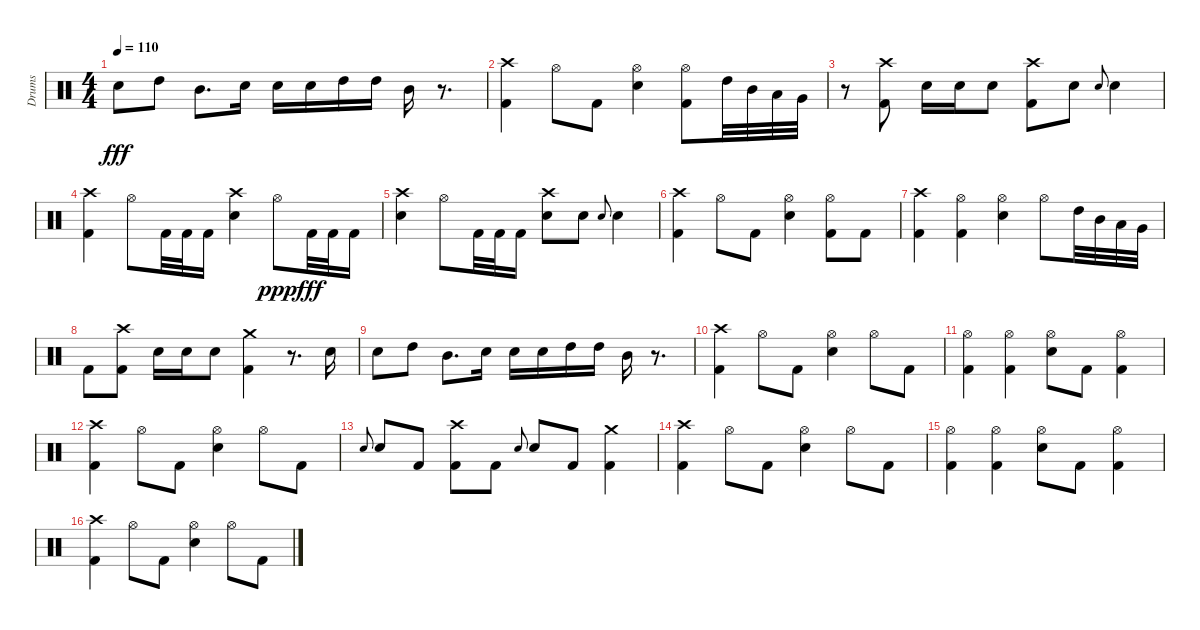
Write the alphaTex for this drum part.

\track ("Drums" "Drums") {instrument percussion}
\staff {score}
\articulation defaults
\ts (4 4)
\tempo 110
\clef neutral
\ks c "Snare (hit) 2".8{dy fff} "High Tom (hit)".8 "Mid Tom (hit)".8{d} "Snare (hit) 2".16 "Snare (hit) 2".16 "Snare (hit) 2".16 "High Tom (hit)".16 "High Tom (hit)".16 "Mid Tom (hit)".16
r.8{d} |
("Crash high (hit)" "Kick (hit) 2").4 "Hi-Hat (open)".8 "Kick (hit) 2".8 ("Hi-Hat (open)" "Snare (hit) 2").4 ("Hi-Hat (open)" "Kick (hit) 2").8 "High Tom (hit)".32 "Mid Tom (hit)".32 "Low Tom (hit)".32 "Very Low Tom (hit)".32 |
r.8 ("Kick (hit) 2" "Crash high (hit)").8 "Snare (hit) 2".16 "Snare (hit) 2".16 "Snare (hit) 2".8 ("Crash high (hit)" "Kick (hit) 2").8 "Snare (hit) 2".8 "Snare (hit) 2".8{gr onbeat} "Snare (hit) 2".4 |
("Kick (hit) 2" "Crash high (hit)").4 "Hi-Hat (open)".8 "Kick (hit) 2".32 "Kick (hit) 2".32 "Kick (hit) 2".16 ("Snare (hit) 2" "Crash high (hit)").4 "Hi-Hat (open)".8{dy ppp} "Kick (hit) 2".32{dy fff} "Kick (hit) 2".32 "Kick (hit) 2".16 |
("Snare (hit) 2" "Crash high (hit)").4 "Hi-Hat (open)".8 "Kick (hit) 2".32 "Kick (hit) 2".32 "Kick (hit) 2".16 ("Snare (hit) 2" "Crash high (hit)").8 "Snare (hit) 2".8 "Snare (hit) 2".8{gr onbeat} "Snare (hit) 2".4 |
("Crash high (hit)" "Kick (hit) 2").4 "Hi-Hat (open)".8 "Kick (hit) 2".8 ("Hi-Hat (open)" "Snare (hit) 2").4 ("Hi-Hat (open)" "Kick (hit) 2").8 "Kick (hit) 2".8 |
("Kick (hit) 2" "Crash high (hit)").4 ("Hi-Hat (open)" "Kick (hit) 2").4 ("Hi-Hat (open)" "Snare (hit) 2").4 "Hi-Hat (open)".8 "High Tom (hit)".32 "Mid Tom (hit)".32 "Low Tom (hit)".32 "Very Low Tom (hit)".32 |
"Kick (hit) 2".8 ("Kick (hit) 2" "Crash high (hit)").8 "Snare (hit) 2".16 "Snare (hit) 2".16 "Snare (hit) 2".8 ("Kick (hit) 2" "Crash medium (hit)").4 r.8{d} "Snare (hit) 2".16 |
"Snare (hit) 2".8 "High Tom (hit)".8 "Mid Tom (hit)".8{d} "Snare (hit) 2".16 "Snare (hit) 2".16 "Snare (hit) 2".16 "High Tom (hit)".16 "High Tom (hit)".16 "Mid Tom (hit)".16 r.8{d} |
("Kick (hit) 2" "Crash high (hit)").4 "Hi-Hat (open)".8 "Kick (hit) 2".8 ("Hi-Hat (open)" "Snare (hit) 2").4 "Hi-Hat (open)".8 "Kick (hit) 2".8 |
("Kick (hit) 2" "Hi-Hat (open)").4 ("Hi-Hat (open)" "Kick (hit) 2").4 ("Hi-Hat (open)" "Snare (hit) 2").8 "Kick (hit) 2".8 ("Hi-Hat (open)" "Kick (hit) 2").4 |
("Kick (hit) 2" "Crash high (hit)").4 "Hi-Hat (open)".8 "Kick (hit) 2".8 ("Hi-Hat (open)" "Snare (hit) 2").4 "Hi-Hat (open)".8 "Kick (hit) 2".8 |
"Snare (hit) 2".8{gr onbeat} "Snare (hit) 2".8 "Kick (hit) 2".8 ("Kick (hit) 2" "Crash high (hit)").8 "Kick (hit) 2".8 "Snare (hit) 2".8{gr onbeat} "Snare (hit) 2".8 "Kick (hit) 2".8 ("Kick (hit) 2" "Crash medium (hit)").4 |
("Kick (hit) 2" "Crash high (hit)").4 "Hi-Hat (open)".8 "Kick (hit) 2".8 ("Hi-Hat (open)" "Snare (hit) 2").4 "Hi-Hat (open)".8 "Kick (hit) 2".8 |
("Kick (hit) 2" "Hi-Hat (open)").4 ("Hi-Hat (open)" "Kick (hit) 2").4 ("Hi-Hat (open)" "Snare (hit) 2").8 "Kick (hit) 2".8 ("Hi-Hat (open)" "Kick (hit) 2").4 |
("Kick (hit) 2" "Crash high (hit)").4 "Hi-Hat (open)".8 "Kick (hit) 2".8 ("Hi-Hat (open)" "Snare (hit) 2").4 "Hi-Hat (open)".8 "Kick (hit) 2".8
